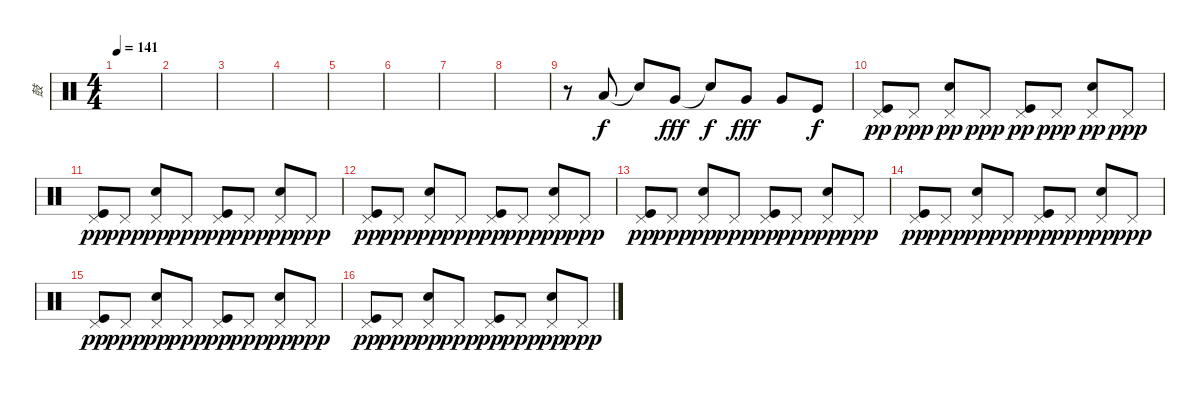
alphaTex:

\track ("鼓" "鼓") {instrument percussion}
\staff {score}
\articulation defaults
\ts (4 4)
\tempo 141
\clef neutral
\ks c
|
|
|
|
|
|
|
|
r.8 "Low Tom (hit)".8 "Snare (hit)"{t}.8{dy f} "Very Low Tom (hit)".8{dy fff} "Snare (hit)"{t}.8{dy f} "Very Low Tom (hit)".8{dy fff} "Very Low Tom (hit)".8 "Kick (hit)".8{dy f} |
("Kick (hit)" "Pedal Hi-Hat (hit)").8{dy pp} "Pedal Hi-Hat (hit)".8{dy ppp} ("Snare (hit) 2" "Pedal Hi-Hat (hit)").8{dy pp} "Pedal Hi-Hat (hit)".8{dy ppp} ("Kick (hit)" "Pedal Hi-Hat (hit)").8{dy pp} "Pedal Hi-Hat (hit)".8{dy ppp} ("Snare (hit) 2" "Pedal Hi-Hat (hit)").8{dy pp} "Pedal Hi-Hat (hit)".8{dy ppp} |
("Kick (hit)" "Pedal Hi-Hat (hit)").8{dy pp} "Pedal Hi-Hat (hit)".8{dy ppp} ("Snare (hit) 2" "Pedal Hi-Hat (hit)").8{dy pp} "Pedal Hi-Hat (hit)".8{dy ppp} ("Kick (hit)" "Pedal Hi-Hat (hit)").8{dy pp} "Pedal Hi-Hat (hit)".8{dy ppp} ("Snare (hit) 2" "Pedal Hi-Hat (hit)").8{dy pp} "Pedal Hi-Hat (hit)".8{dy ppp} |
("Kick (hit)" "Pedal Hi-Hat (hit)").8{dy pp} "Pedal Hi-Hat (hit)".8{dy ppp} ("Snare (hit) 2" "Pedal Hi-Hat (hit)").8{dy pp} "Pedal Hi-Hat (hit)".8{dy ppp} ("Kick (hit)" "Pedal Hi-Hat (hit)").8{dy pp} "Pedal Hi-Hat (hit)".8{dy ppp} ("Snare (hit) 2" "Pedal Hi-Hat (hit)").8{dy pp} "Pedal Hi-Hat (hit)".8{dy ppp} |
("Kick (hit)" "Pedal Hi-Hat (hit)").8{dy pp} "Pedal Hi-Hat (hit)".8{dy ppp} ("Snare (hit) 2" "Pedal Hi-Hat (hit)").8{dy pp} "Pedal Hi-Hat (hit)".8{dy ppp} ("Kick (hit)" "Pedal Hi-Hat (hit)").8{dy pp} "Pedal Hi-Hat (hit)".8{dy ppp} ("Snare (hit) 2" "Pedal Hi-Hat (hit)").8{dy pp} "Pedal Hi-Hat (hit)".8{dy ppp} |
("Kick (hit)" "Pedal Hi-Hat (hit)").8{dy pp} "Pedal Hi-Hat (hit)".8{dy ppp} ("Snare (hit) 2" "Pedal Hi-Hat (hit)").8{dy pp} "Pedal Hi-Hat (hit)".8{dy ppp} ("Kick (hit)" "Pedal Hi-Hat (hit)").8{dy pp} "Pedal Hi-Hat (hit)".8{dy ppp} ("Snare (hit) 2" "Pedal Hi-Hat (hit)").8{dy pp} "Pedal Hi-Hat (hit)".8{dy ppp} |
("Kick (hit)" "Pedal Hi-Hat (hit)").8{dy pp} "Pedal Hi-Hat (hit)".8{dy ppp} ("Snare (hit) 2" "Pedal Hi-Hat (hit)").8{dy pp} "Pedal Hi-Hat (hit)".8{dy ppp} ("Kick (hit)" "Pedal Hi-Hat (hit)").8{dy pp} "Pedal Hi-Hat (hit)".8{dy ppp} ("Snare (hit) 2" "Pedal Hi-Hat (hit)").8{dy pp} "Pedal Hi-Hat (hit)".8{dy ppp} |
("Kick (hit)" "Pedal Hi-Hat (hit)").8{dy pp} "Pedal Hi-Hat (hit)".8{dy ppp} ("Snare (hit) 2" "Pedal Hi-Hat (hit)").8{dy pp} "Pedal Hi-Hat (hit)".8{dy ppp} ("Kick (hit)" "Pedal Hi-Hat (hit)").8{dy pp} "Pedal Hi-Hat (hit)".8{dy ppp} ("Snare (hit) 2" "Pedal Hi-Hat (hit)").8{dy pp} "Pedal Hi-Hat (hit)".8{dy ppp}
